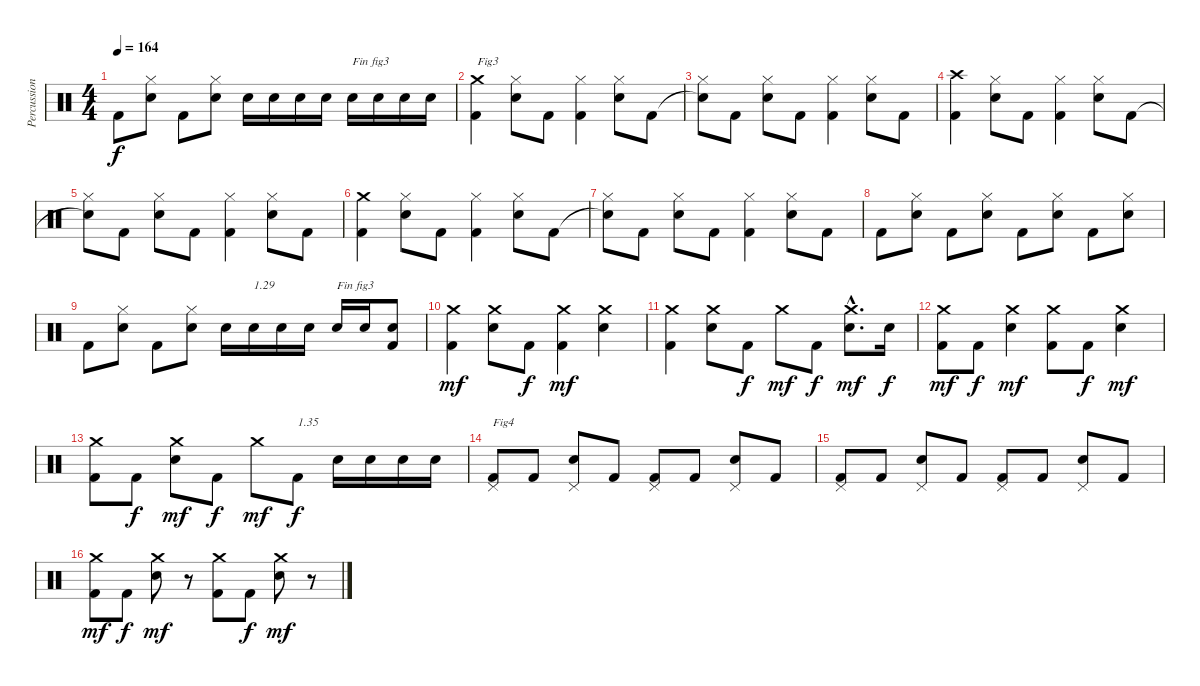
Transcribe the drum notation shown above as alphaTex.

\track ("Percussions" "Percussion") {instrument percussion}
\staff {score}
\articulation defaults
\ts (4 4)
\tempo 164
\clef neutral
\ks c "Kick (hit) 2".8{dy f}
("Electric Snare (hit)" "Hi-Hat (closed)").8 "Kick (hit) 2".8 ("Electric Snare (hit)" "Hi-Hat (closed)").8 "Electric Snare (hit)".16 "Electric Snare (hit)".16 "Electric Snare (hit)".16 "Electric Snare (hit)".16 "Electric Snare (hit)".16{txt "Fin fig3"} "Electric Snare (hit)".16 "Electric Snare (hit)".16 "Electric Snare (hit)".16 |
("Kick (hit) 2" "Crash medium (hit)").4{txt "Fig3"} ("Electric Snare (hit)" "Hi-Hat (closed)").8 "Kick (hit) 2".8 ("Kick (hit) 2" "Hi-Hat (closed)").4 ("Electric Snare (hit)" "Hi-Hat (closed)").8 "Kick (hit) 2".8 |
("Snare (hit)"{t} "Hi-Hat (closed)").8 "Kick (hit) 2".8 ("Electric Snare (hit)" "Hi-Hat (closed)").8 "Kick (hit) 2".8 ("Kick (hit) 2" "Hi-Hat (closed)").4 ("Electric Snare (hit)" "Hi-Hat (closed)").8 "Kick (hit) 2".8 |
("Kick (hit) 2" "Crash high (hit)").4 ("Electric Snare (hit)" "Hi-Hat (closed)").8 "Kick (hit) 2".8 ("Kick (hit) 2" "Hi-Hat (closed)").4 ("Electric Snare (hit)" "Hi-Hat (closed)").8 "Kick (hit) 2".8 |
("Snare (hit)"{t} "Hi-Hat (closed)").8 "Kick (hit) 2".8 ("Electric Snare (hit)" "Hi-Hat (closed)").8 "Kick (hit) 2".8 ("Kick (hit) 2" "Hi-Hat (closed)").4 ("Electric Snare (hit)" "Hi-Hat (closed)").8 "Kick (hit) 2".8 |
("Kick (hit) 2" "Crash medium (hit)").4 ("Electric Snare (hit)" "Hi-Hat (closed)").8 "Kick (hit) 2".8 ("Kick (hit) 2" "Hi-Hat (closed)").4 ("Electric Snare (hit)" "Hi-Hat (closed)").8 "Kick (hit) 2".8 |
("Snare (hit)"{t} "Hi-Hat (closed)").8 "Kick (hit) 2".8 ("Electric Snare (hit)" "Hi-Hat (closed)").8 "Kick (hit) 2".8 ("Kick (hit) 2" "Hi-Hat (closed)").4 ("Electric Snare (hit)" "Hi-Hat (closed)").8 "Kick (hit) 2".8 |
"Kick (hit) 2".8 ("Electric Snare (hit)" "Hi-Hat (closed)").8 "Kick (hit) 2".8 ("Electric Snare (hit)" "Hi-Hat (closed)").8 "Kick (hit) 2".8 ("Electric Snare (hit)" "Hi-Hat (closed)").8 "Kick (hit) 2".8 ("Electric Snare (hit)" "Hi-Hat (closed)").8 |
"Kick (hit) 2".8 ("Electric Snare (hit)" "Hi-Hat (closed)").8 "Kick (hit) 2".8 ("Electric Snare (hit)" "Hi-Hat (closed)").8 "Electric Snare (hit)".16 "Electric Snare (hit)".16{txt "1.29"} "Electric Snare (hit)".16 "Electric Snare (hit)".16 "Electric Snare (hit)".16{txt "Fin fig3"} "Electric Snare (hit)".16 ("Kick (hit) 2" "Electric Snare (hit)").8 |
("Kick (hit) 2" "Crash medium (hit)").4{dy mf} ("Electric Snare (hit)" "Crash medium (hit)").8 "Kick (hit) 2".8{dy f} ("Kick (hit) 2" "Crash medium (hit)").4{dy mf} ("Electric Snare (hit)" "Crash medium (hit)").4 |
("Kick (hit) 2" "Crash medium (hit)").4 ("Electric Snare (hit)" "Crash medium (hit)").8 "Kick (hit) 2".8{dy f} "Crash medium (hit)".8{dy mf} "Kick (hit) 2".8{dy f} ("Electric Snare (hit)"{hac} "Crash medium (hit)"{hac}).8{d dy mf} "Electric Snare (hit)".16{dy f} |
("Kick (hit) 2" "Crash medium (hit)").8{dy mf} "Kick (hit) 2".8{dy f} ("Electric Snare (hit)" "Crash medium (hit)").4{dy mf} ("Kick (hit) 2" "Crash medium (hit)").8 "Kick (hit) 2".8{dy f} ("Electric Snare (hit)" "Crash medium (hit)").4{dy mf} |
("Kick (hit) 2" "Crash medium (hit)").8 "Kick (hit) 2".8{dy f} ("Electric Snare (hit)" "Crash medium (hit)").8{dy mf} "Kick (hit) 2".8{dy f} "Crash medium (hit)".8{dy mf} "Kick (hit) 2".8{txt "1.35" dy f} "Electric Snare (hit)".16 "Electric Snare (hit)".16 "Electric Snare (hit)".16 "Electric Snare (hit)".16 |
("Kick (hit) 2" "Pedal Hi-Hat (hit)").8{txt "Fig4"} "Kick (hit) 2".8 ("Electric Snare (hit)" "Pedal Hi-Hat (hit)").8 "Kick (hit) 2".8 ("Kick (hit) 2" "Pedal Hi-Hat (hit)").8 "Kick (hit) 2".8 ("Electric Snare (hit)" "Pedal Hi-Hat (hit)").8 "Kick (hit) 2".8 |
("Kick (hit) 2" "Pedal Hi-Hat (hit)").8 "Kick (hit) 2".8 ("Electric Snare (hit)" "Pedal Hi-Hat (hit)").8 "Kick (hit) 2".8 ("Kick (hit) 2" "Pedal Hi-Hat (hit)").8 "Kick (hit) 2".8 ("Electric Snare (hit)" "Pedal Hi-Hat (hit)").8 "Kick (hit) 2".8 |
("Kick (hit) 2" "Crash medium (hit)").8{dy mf} "Kick (hit) 2".8{dy f} ("Electric Snare (hit)" "Crash medium (hit)").8{dy mf} r.8 ("Kick (hit) 2" "Crash medium (hit)").8 "Kick (hit) 2".8{dy f} ("Electric Snare (hit)" "Crash medium (hit)").8{dy mf} r.8
